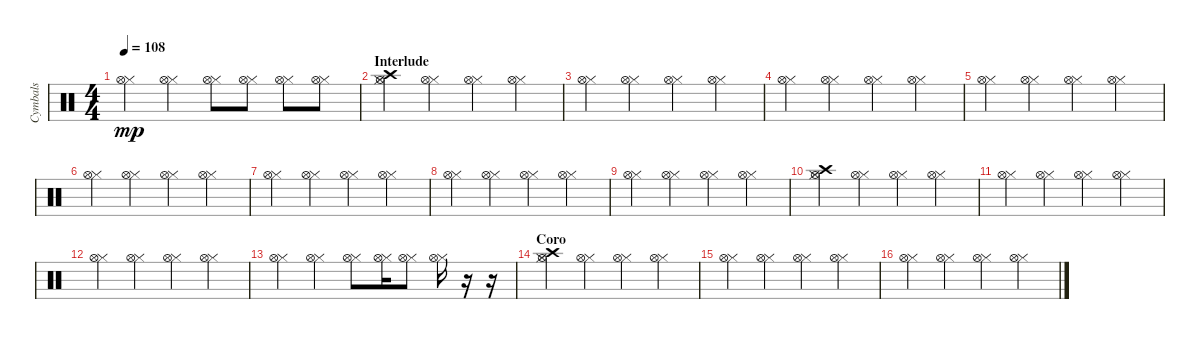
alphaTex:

\track ("Cymbals" "Cymbals") {instrument percussion}
\staff {score}
\articulation defaults
\ts (4 4)
\tempo 108
\clef neutral
\ks c
("Hi-Hat (closed)" "Hi-Hat (open)").4{dy mp} ("Hi-Hat (closed)" "Hi-Hat (open)").4 ("Hi-Hat (closed)" "Hi-Hat (open)").8 ("Hi-Hat (closed)" "Hi-Hat (open)").8 ("Hi-Hat (closed)" "Hi-Hat (open)").8 ("Hi-Hat (closed)" "Hi-Hat (open)").8 |
\section ("" "Interlude")
("Crash high (hit)" "Hi-Hat (closed)" "Hi-Hat (open)").4 ("Hi-Hat (closed)" "Hi-Hat (open)").4 ("Hi-Hat (closed)" "Hi-Hat (open)").4 ("Hi-Hat (closed)" "Hi-Hat (open)").4 |
("Hi-Hat (closed)" "Hi-Hat (open)").4 ("Hi-Hat (closed)" "Hi-Hat (open)").4 ("Hi-Hat (closed)" "Hi-Hat (open)").4 ("Hi-Hat (closed)" "Hi-Hat (open)").4 |
("Hi-Hat (closed)" "Hi-Hat (open)").4 ("Hi-Hat (closed)" "Hi-Hat (open)").4 ("Hi-Hat (closed)" "Hi-Hat (open)").4 ("Hi-Hat (closed)" "Hi-Hat (open)").4 |
("Hi-Hat (closed)" "Hi-Hat (open)").4 ("Hi-Hat (closed)" "Hi-Hat (open)").4 ("Hi-Hat (closed)" "Hi-Hat (open)").4 ("Hi-Hat (closed)" "Hi-Hat (open)").4 |
("Hi-Hat (closed)" "Hi-Hat (open)").4 ("Hi-Hat (closed)" "Hi-Hat (open)").4 ("Hi-Hat (closed)" "Hi-Hat (open)").4 ("Hi-Hat (closed)" "Hi-Hat (open)").4 |
("Hi-Hat (closed)" "Hi-Hat (open)").4 ("Hi-Hat (closed)" "Hi-Hat (open)").4 ("Hi-Hat (closed)" "Hi-Hat (open)").4 ("Hi-Hat (closed)" "Hi-Hat (open)").4 |
("Hi-Hat (closed)" "Hi-Hat (open)").4 ("Hi-Hat (closed)" "Hi-Hat (open)").4 ("Hi-Hat (closed)" "Hi-Hat (open)").4 ("Hi-Hat (closed)" "Hi-Hat (open)").4 |
("Hi-Hat (closed)" "Hi-Hat (open)").4 ("Hi-Hat (closed)" "Hi-Hat (open)").4 ("Hi-Hat (closed)" "Hi-Hat (open)").4 ("Hi-Hat (closed)" "Hi-Hat (open)").4 |
("Crash high (hit)" "Hi-Hat (closed)" "Hi-Hat (open)").4 ("Hi-Hat (closed)" "Hi-Hat (open)").4 ("Hi-Hat (closed)" "Hi-Hat (open)").4 ("Hi-Hat (closed)" "Hi-Hat (open)").4 |
("Hi-Hat (closed)" "Hi-Hat (open)").4 ("Hi-Hat (closed)" "Hi-Hat (open)").4 ("Hi-Hat (closed)" "Hi-Hat (open)").4 ("Hi-Hat (closed)" "Hi-Hat (open)").4 |
("Hi-Hat (closed)" "Hi-Hat (open)").4 ("Hi-Hat (closed)" "Hi-Hat (open)").4 ("Hi-Hat (closed)" "Hi-Hat (open)").4 ("Hi-Hat (closed)" "Hi-Hat (open)").4 |
("Hi-Hat (closed)" "Hi-Hat (open)").4 ("Hi-Hat (closed)" "Hi-Hat (open)").4 ("Hi-Hat (closed)" "Hi-Hat (open)").8 ("Hi-Hat (closed)" "Hi-Hat (open)").16 ("Hi-Hat (closed)" "Hi-Hat (open)").8 ("Hi-Hat (closed)" "Hi-Hat (open)").16 r.16 r.16 |
\section ("" "Coro")
("Crash high (hit)" "Hi-Hat (closed)" "Hi-Hat (open)").4 ("Hi-Hat (closed)" "Hi-Hat (open)").4 ("Hi-Hat (closed)" "Hi-Hat (open)").4 ("Hi-Hat (closed)" "Hi-Hat (open)").4 |
("Hi-Hat (closed)" "Hi-Hat (open)").4 ("Hi-Hat (closed)" "Hi-Hat (open)").4 ("Hi-Hat (closed)" "Hi-Hat (open)").4 ("Hi-Hat (closed)" "Hi-Hat (open)").4 |
("Hi-Hat (closed)" "Hi-Hat (open)").4 ("Hi-Hat (closed)" "Hi-Hat (open)").4 ("Hi-Hat (closed)" "Hi-Hat (open)").4 ("Hi-Hat (closed)" "Hi-Hat (open)").4
